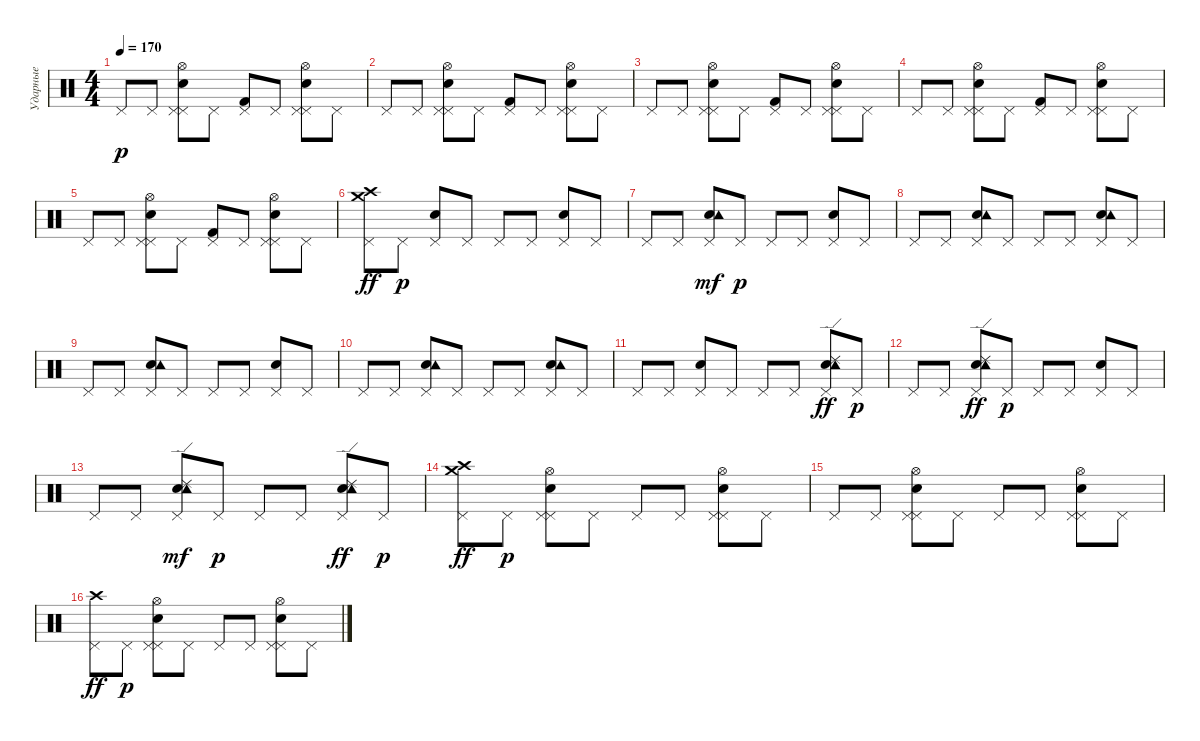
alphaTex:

\track ("Ударные" "Ударные") {instrument percussion}
\staff {score}
\articulation defaults
\ts (4 4)
\tempo 170
\clef neutral
\ks c "Pedal Hi-Hat (hit)".8{dy p} "Pedal Hi-Hat (hit)".8
("Pedal Hi-Hat (hit)" "Snare (hit) 2" "Pedal Hi-Hat (hit)" "Hi-Hat (open)").8 "Pedal Hi-Hat (hit)".8 ("Pedal Hi-Hat (hit)" "Kick (hit) 2").8 "Pedal Hi-Hat (hit)".8 ("Pedal Hi-Hat (hit)" "Snare (hit) 2" "Pedal Hi-Hat (hit)" "Hi-Hat (open)").8 "Pedal Hi-Hat (hit)".8 |
"Pedal Hi-Hat (hit)".8 "Pedal Hi-Hat (hit)".8 ("Pedal Hi-Hat (hit)" "Snare (hit) 2" "Pedal Hi-Hat (hit)" "Hi-Hat (open)").8 "Pedal Hi-Hat (hit)".8 ("Pedal Hi-Hat (hit)" "Kick (hit) 2").8 "Pedal Hi-Hat (hit)".8 ("Pedal Hi-Hat (hit)" "Snare (hit) 2" "Pedal Hi-Hat (hit)" "Hi-Hat (open)").8 "Pedal Hi-Hat (hit)".8 |
"Pedal Hi-Hat (hit)".8 "Pedal Hi-Hat (hit)".8 ("Pedal Hi-Hat (hit)" "Snare (hit) 2" "Pedal Hi-Hat (hit)" "Hi-Hat (open)").8 "Pedal Hi-Hat (hit)".8 ("Pedal Hi-Hat (hit)" "Kick (hit) 2").8 "Pedal Hi-Hat (hit)".8 ("Pedal Hi-Hat (hit)" "Snare (hit) 2" "Pedal Hi-Hat (hit)" "Hi-Hat (open)").8 "Pedal Hi-Hat (hit)".8 |
"Pedal Hi-Hat (hit)".8 "Pedal Hi-Hat (hit)".8 ("Pedal Hi-Hat (hit)" "Snare (hit) 2" "Pedal Hi-Hat (hit)" "Hi-Hat (open)").8 "Pedal Hi-Hat (hit)".8 ("Pedal Hi-Hat (hit)" "Kick (hit) 2").8 "Pedal Hi-Hat (hit)".8 ("Pedal Hi-Hat (hit)" "Snare (hit) 2" "Pedal Hi-Hat (hit)" "Hi-Hat (open)").8 "Pedal Hi-Hat (hit)".8 |
"Pedal Hi-Hat (hit)".8 "Pedal Hi-Hat (hit)".8 ("Pedal Hi-Hat (hit)" "Snare (hit) 2" "Pedal Hi-Hat (hit)" "Hi-Hat (open)").8 "Pedal Hi-Hat (hit)".8 ("Pedal Hi-Hat (hit)" "Kick (hit) 2").8 "Pedal Hi-Hat (hit)".8 ("Pedal Hi-Hat (hit)" "Snare (hit) 2" "Pedal Hi-Hat (hit)" "Hi-Hat (open)").8 "Pedal Hi-Hat (hit)".8 |
("Pedal Hi-Hat (hit)" "Crash high (hit)" "Crash medium (hit)").8{dy ff} "Pedal Hi-Hat (hit)".8{dy p} ("Electric Snare (hit)" "Pedal Hi-Hat (hit)").8 "Pedal Hi-Hat (hit)".8 "Pedal Hi-Hat (hit)".8 "Pedal Hi-Hat (hit)".8 ("Electric Snare (hit)" "Pedal Hi-Hat (hit)").8 "Pedal Hi-Hat (hit)".8 |
"Pedal Hi-Hat (hit)".8 "Pedal Hi-Hat (hit)".8 ("Electric Snare (hit)" "Pedal Hi-Hat (hit)" "Tambourine (hit)").8{dy mf} "Pedal Hi-Hat (hit)".8{dy p} "Pedal Hi-Hat (hit)".8 "Pedal Hi-Hat (hit)".8 ("Electric Snare (hit)" "Pedal Hi-Hat (hit)").8 "Pedal Hi-Hat (hit)".8 |
"Pedal Hi-Hat (hit)".8 "Pedal Hi-Hat (hit)".8 ("Electric Snare (hit)" "Pedal Hi-Hat (hit)" "Tambourine (hit)").8 "Pedal Hi-Hat (hit)".8 "Pedal Hi-Hat (hit)".8 "Pedal Hi-Hat (hit)".8 ("Electric Snare (hit)" "Pedal Hi-Hat (hit)" "Tambourine (hit)").8 "Pedal Hi-Hat (hit)".8 |
"Pedal Hi-Hat (hit)".8 "Pedal Hi-Hat (hit)".8 ("Electric Snare (hit)" "Pedal Hi-Hat (hit)" "Tambourine (hit)").8 "Pedal Hi-Hat (hit)".8 "Pedal Hi-Hat (hit)".8 "Pedal Hi-Hat (hit)".8 ("Electric Snare (hit)" "Pedal Hi-Hat (hit)").8 "Pedal Hi-Hat (hit)".8 |
"Pedal Hi-Hat (hit)".8 "Pedal Hi-Hat (hit)".8 ("Electric Snare (hit)" "Pedal Hi-Hat (hit)" "Tambourine (hit)").8 "Pedal Hi-Hat (hit)".8 "Pedal Hi-Hat (hit)".8 "Pedal Hi-Hat (hit)".8 ("Electric Snare (hit)" "Pedal Hi-Hat (hit)" "Tambourine (hit)").8 "Pedal Hi-Hat (hit)".8 |
"Pedal Hi-Hat (hit)".8 "Pedal Hi-Hat (hit)".8 ("Electric Snare (hit)" "Pedal Hi-Hat (hit)").8 "Pedal Hi-Hat (hit)".8 "Pedal Hi-Hat (hit)".8 "Pedal Hi-Hat (hit)".8 ("Electric Snare (hit)" "Pedal Hi-Hat (hit)" "Tambourine (hit)" "Ride (edge) 2").8{dy ff} "Pedal Hi-Hat (hit)".8{dy p} |
"Pedal Hi-Hat (hit)".8 "Pedal Hi-Hat (hit)".8 ("Electric Snare (hit)" "Pedal Hi-Hat (hit)" "Tambourine (hit)" "Ride (edge) 2").8{dy ff} "Pedal Hi-Hat (hit)".8{dy p} "Pedal Hi-Hat (hit)".8 "Pedal Hi-Hat (hit)".8 ("Electric Snare (hit)" "Pedal Hi-Hat (hit)").8 "Pedal Hi-Hat (hit)".8 |
"Pedal Hi-Hat (hit)".8 "Pedal Hi-Hat (hit)".8 ("Electric Snare (hit)" "Pedal Hi-Hat (hit)" "Tambourine (hit)" "Ride (edge) 2").8{dy mf} "Pedal Hi-Hat (hit)".8{dy p} "Pedal Hi-Hat (hit)".8 "Pedal Hi-Hat (hit)".8 ("Electric Snare (hit)" "Pedal Hi-Hat (hit)" "Tambourine (hit)" "Ride (edge) 2").8{dy ff} "Pedal Hi-Hat (hit)".8{dy p} |
("Pedal Hi-Hat (hit)" "Crash medium (hit)" "Crash high (hit)").8{dy ff} "Pedal Hi-Hat (hit)".8{dy p} ("Pedal Hi-Hat (hit)" "Snare (hit) 2" "Pedal Hi-Hat (hit)" "Hi-Hat (open)").8 "Pedal Hi-Hat (hit)".8 "Pedal Hi-Hat (hit)".8 "Pedal Hi-Hat (hit)".8 ("Pedal Hi-Hat (hit)" "Snare (hit) 2" "Pedal Hi-Hat (hit)" "Hi-Hat (open)").8 "Pedal Hi-Hat (hit)".8 |
"Pedal Hi-Hat (hit)".8 "Pedal Hi-Hat (hit)".8 ("Pedal Hi-Hat (hit)" "Snare (hit) 2" "Pedal Hi-Hat (hit)" "Hi-Hat (open)").8 "Pedal Hi-Hat (hit)".8 "Pedal Hi-Hat (hit)".8 "Pedal Hi-Hat (hit)".8 ("Pedal Hi-Hat (hit)" "Snare (hit) 2" "Pedal Hi-Hat (hit)" "Hi-Hat (open)").8 "Pedal Hi-Hat (hit)".8 |
("Pedal Hi-Hat (hit)" "Crash high (hit)").8{dy ff} "Pedal Hi-Hat (hit)".8{dy p} ("Pedal Hi-Hat (hit)" "Snare (hit) 2" "Pedal Hi-Hat (hit)" "Hi-Hat (open)").8 "Pedal Hi-Hat (hit)".8 "Pedal Hi-Hat (hit)".8 "Pedal Hi-Hat (hit)".8 ("Pedal Hi-Hat (hit)" "Snare (hit) 2" "Pedal Hi-Hat (hit)" "Hi-Hat (open)").8 "Pedal Hi-Hat (hit)".8
